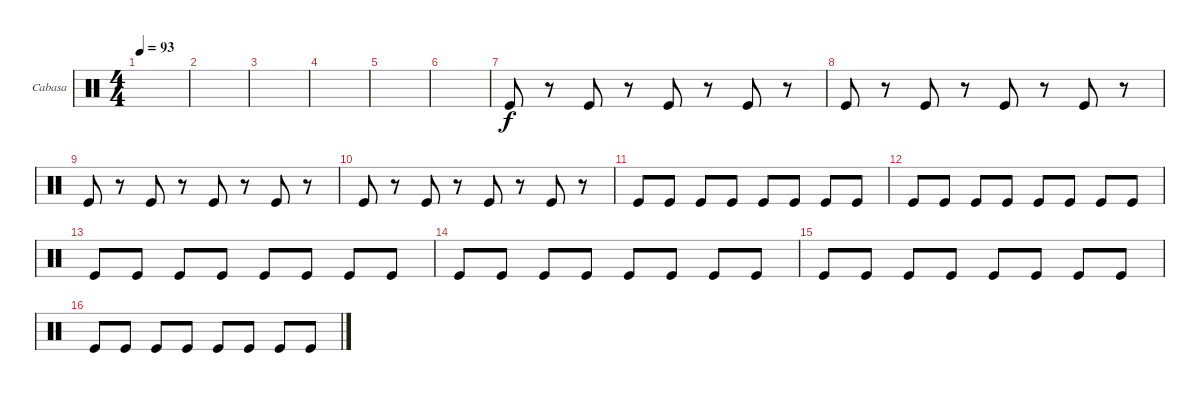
\defaultSystemsLayout 4
\bracketExtendMode groupsimilarinstruments
\firstSystemTrackNameOrientation horizontal
\otherSystemsTrackNameOrientation horizontal
\track ("Cabasa" "Cabasa") {instrument percussion}
\staff {score}
\articulation defaults
\ts (4 4)
\tempo 93
\clef neutral
\ks c
|
|
|
|
|
|
"Kick (hit)".8 r.8 "Kick (hit)".8 r.8 "Kick (hit)".8 r.8 "Kick (hit)".8 r.8 |
"Kick (hit)".8 r.8 "Kick (hit)".8 r.8 "Kick (hit)".8 r.8 "Kick (hit)".8 r.8 |
"Kick (hit)".8 r.8 "Kick (hit)".8 r.8 "Kick (hit)".8 r.8 "Kick (hit)".8 r.8 |
"Kick (hit)".8 r.8 "Kick (hit)".8 r.8 "Kick (hit)".8 r.8 "Kick (hit)".8 r.8 |
"Kick (hit)".8 "Kick (hit)".8 "Kick (hit)".8 "Kick (hit)".8 "Kick (hit)".8 "Kick (hit)".8 "Kick (hit)".8 "Kick (hit)".8 |
"Kick (hit)".8 "Kick (hit)".8 "Kick (hit)".8 "Kick (hit)".8 "Kick (hit)".8 "Kick (hit)".8 "Kick (hit)".8 "Kick (hit)".8 |
"Kick (hit)".8 "Kick (hit)".8 "Kick (hit)".8 "Kick (hit)".8 "Kick (hit)".8 "Kick (hit)".8 "Kick (hit)".8 "Kick (hit)".8 |
"Kick (hit)".8 "Kick (hit)".8 "Kick (hit)".8 "Kick (hit)".8 "Kick (hit)".8 "Kick (hit)".8 "Kick (hit)".8 "Kick (hit)".8 |
"Kick (hit)".8 "Kick (hit)".8 "Kick (hit)".8 "Kick (hit)".8 "Kick (hit)".8 "Kick (hit)".8 "Kick (hit)".8 "Kick (hit)".8 |
"Kick (hit)".8 "Kick (hit)".8 "Kick (hit)".8 "Kick (hit)".8 "Kick (hit)".8 "Kick (hit)".8 "Kick (hit)".8 "Kick (hit)".8
